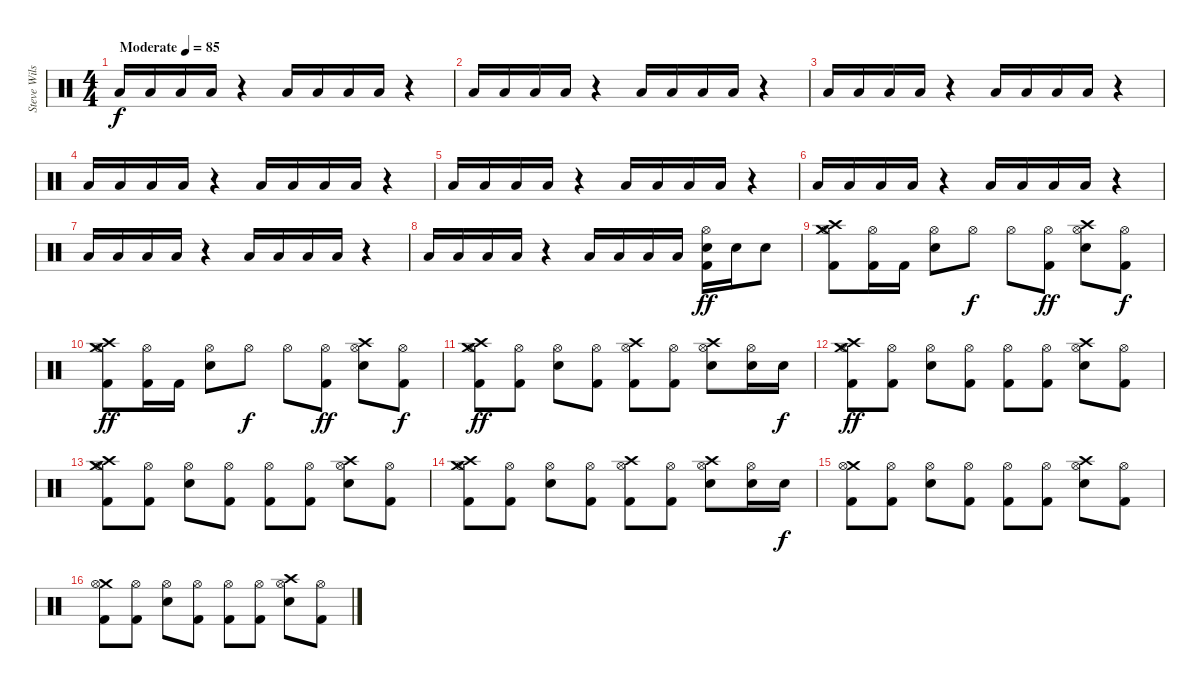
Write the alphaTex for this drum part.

\track ("Steve Wilson" "Steve Wils") {instrument percussion}
\staff {score}
\articulation defaults
\ts (4 4)
\tempo (85 "Moderate")
\clef neutral
\ks c "Low Tom (hit)".16{dy f} "Low Tom (hit)".16 "Low Tom (hit)".16 "Low Tom (hit)".16
r.4 "Low Tom (hit)".16 "Low Tom (hit)".16 "Low Tom (hit)".16 "Low Tom (hit)".16 r.4 |
"Low Tom (hit)".16 "Low Tom (hit)".16 "Low Tom (hit)".16 "Low Tom (hit)".16 r.4 "Low Tom (hit)".16 "Low Tom (hit)".16 "Low Tom (hit)".16 "Low Tom (hit)".16 r.4 |
"Low Tom (hit)".16 "Low Tom (hit)".16 "Low Tom (hit)".16 "Low Tom (hit)".16 r.4 "Low Tom (hit)".16 "Low Tom (hit)".16 "Low Tom (hit)".16 "Low Tom (hit)".16 r.4 |
"Low Tom (hit)".16 "Low Tom (hit)".16 "Low Tom (hit)".16 "Low Tom (hit)".16 r.4 "Low Tom (hit)".16 "Low Tom (hit)".16 "Low Tom (hit)".16 "Low Tom (hit)".16 r.4 |
"Low Tom (hit)".16 "Low Tom (hit)".16 "Low Tom (hit)".16 "Low Tom (hit)".16 r.4 "Low Tom (hit)".16 "Low Tom (hit)".16 "Low Tom (hit)".16 "Low Tom (hit)".16 r.4 |
"Low Tom (hit)".16 "Low Tom (hit)".16 "Low Tom (hit)".16 "Low Tom (hit)".16 r.4 "Low Tom (hit)".16 "Low Tom (hit)".16 "Low Tom (hit)".16 "Low Tom (hit)".16 r.4 |
"Low Tom (hit)".16 "Low Tom (hit)".16 "Low Tom (hit)".16 "Low Tom (hit)".16 r.4 "Low Tom (hit)".16 "Low Tom (hit)".16 "Low Tom (hit)".16 "Low Tom (hit)".16 r.4 |
"Low Tom (hit)".16 "Low Tom (hit)".16 "Low Tom (hit)".16 "Low Tom (hit)".16 r.4 "Low Tom (hit)".16 "Low Tom (hit)".16 "Low Tom (hit)".16 "Low Tom (hit)".16 ("Hi-Hat (open)" "Kick (hit) 2" "Snare (hit) 2").16{dy ff} "Snare (hit) 2".16 "Snare (hit) 2".8 |
("Crash high (hit)" "Crash medium (hit)" "Hi-Hat (open)" "Kick (hit) 2").8 ("Hi-Hat (open)" "Kick (hit) 2").16 "Kick (hit) 2".16 ("Hi-Hat (open)" "Snare (hit) 2").8 "Hi-Hat (open)".8{dy f} "Hi-Hat (open)".8 ("Hi-Hat (open)" "Kick (hit) 2").8{dy ff} ("Crash high (hit)" "Hi-Hat (open)" "Snare (hit) 2").8 ("Hi-Hat (open)" "Kick (hit) 2").8{dy f} |
("Crash high (hit)" "Crash medium (hit)" "Hi-Hat (open)" "Kick (hit) 2").8{dy ff} ("Hi-Hat (open)" "Kick (hit) 2").16 "Kick (hit) 2".16 ("Hi-Hat (open)" "Snare (hit) 2").8 "Hi-Hat (open)".8{dy f} "Hi-Hat (open)".8 ("Hi-Hat (open)" "Kick (hit) 2").8{dy ff} ("Crash high (hit)" "Hi-Hat (open)" "Snare (hit) 2").8 ("Hi-Hat (open)" "Kick (hit) 2").8{dy f} |
("Crash high (hit)" "Crash medium (hit)" "Hi-Hat (open)" "Kick (hit) 2").8{dy ff} ("Hi-Hat (open)" "Kick (hit) 2").8 ("Hi-Hat (open)" "Snare (hit) 2").8 ("Hi-Hat (open)" "Kick (hit) 2").8 ("Crash high (hit)" "Hi-Hat (open)" "Kick (hit) 2").8 ("Hi-Hat (open)" "Kick (hit) 2").8 ("Crash high (hit)" "Hi-Hat (open)" "Snare (hit) 2").8 ("Hi-Hat (open)" "Snare (hit) 2").16 "Snare (hit) 2".16{dy f} |
("Crash high (hit)" "Crash medium (hit)" "Hi-Hat (open)" "Kick (hit) 2").8{dy ff} ("Hi-Hat (open)" "Kick (hit) 2").8 ("Hi-Hat (open)" "Snare (hit) 2").8 ("Hi-Hat (open)" "Kick (hit) 2").8 ("Hi-Hat (open)" "Kick (hit) 2").8 ("Hi-Hat (open)" "Kick (hit) 2").8 ("Crash high (hit)" "Hi-Hat (open)" "Snare (hit) 2").8 ("Hi-Hat (open)" "Kick (hit) 2").8 |
("Crash high (hit)" "Crash medium (hit)" "Hi-Hat (open)" "Kick (hit) 2").8 ("Hi-Hat (open)" "Kick (hit) 2").8 ("Hi-Hat (open)" "Snare (hit) 2").8 ("Hi-Hat (open)" "Kick (hit) 2").8 ("Hi-Hat (open)" "Kick (hit) 2").8 ("Hi-Hat (open)" "Kick (hit) 2").8 ("Crash high (hit)" "Hi-Hat (open)" "Snare (hit) 2").8 ("Hi-Hat (open)" "Kick (hit) 2").8 |
("Crash high (hit)" "Crash medium (hit)" "Hi-Hat (open)" "Kick (hit) 2").8 ("Hi-Hat (open)" "Kick (hit) 2").8 ("Hi-Hat (open)" "Snare (hit) 2").8 ("Hi-Hat (open)" "Kick (hit) 2").8 ("Crash high (hit)" "Hi-Hat (open)" "Kick (hit) 2").8 ("Hi-Hat (open)" "Kick (hit) 2").8 ("Crash high (hit)" "Hi-Hat (open)" "Snare (hit) 2").8 ("Hi-Hat (open)" "Snare (hit) 2").16 "Snare (hit) 2".16{dy f} |
("Crash medium (hit)" "Hi-Hat (open)" "Kick (hit) 2").8 ("Hi-Hat (open)" "Kick (hit) 2").8 ("Hi-Hat (open)" "Snare (hit) 2").8 ("Hi-Hat (open)" "Kick (hit) 2").8 ("Hi-Hat (open)" "Kick (hit) 2").8 ("Hi-Hat (open)" "Kick (hit) 2").8 ("Crash high (hit)" "Hi-Hat (open)" "Snare (hit) 2").8 ("Hi-Hat (open)" "Kick (hit) 2").8 |
("Crash medium (hit)" "Hi-Hat (open)" "Kick (hit) 2").8 ("Hi-Hat (open)" "Kick (hit) 2").8 ("Hi-Hat (open)" "Snare (hit) 2").8 ("Hi-Hat (open)" "Kick (hit) 2").8 ("Hi-Hat (open)" "Kick (hit) 2").8 ("Hi-Hat (open)" "Kick (hit) 2").8 ("Crash high (hit)" "Hi-Hat (open)" "Snare (hit) 2").8 ("Hi-Hat (open)" "Kick (hit) 2").8
